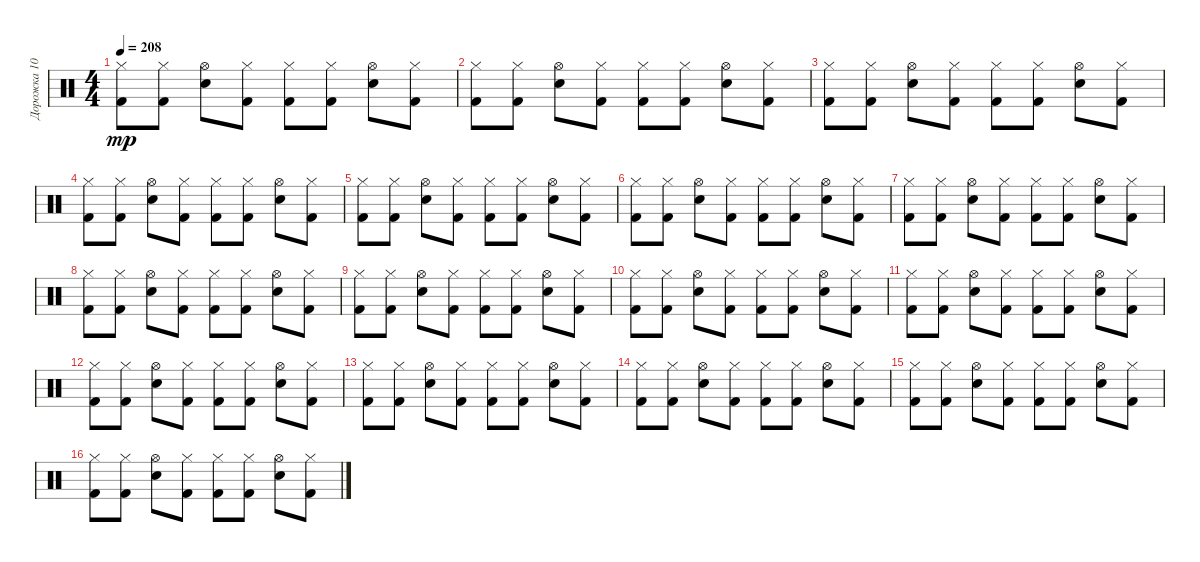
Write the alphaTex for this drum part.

\track ("Дорожка 10" "Дорожка 10") {instrument percussion}
\staff {score}
\articulation defaults
\ts (4 4)
\tempo 208
\clef neutral
\ks c
("Kick (hit) 2" "Hi-Hat (closed)").8{dy mp} ("Kick (hit) 2" "Hi-Hat (closed)").8 ("Snare (hit) 2" "Hi-Hat (open)").8 ("Kick (hit) 2" "Hi-Hat (closed)").8 ("Kick (hit) 2" "Hi-Hat (closed)").8 ("Kick (hit) 2" "Hi-Hat (closed)").8 ("Snare (hit) 2" "Hi-Hat (open)").8 ("Kick (hit) 2" "Hi-Hat (closed)").8 |
("Kick (hit) 2" "Hi-Hat (closed)").8 ("Kick (hit) 2" "Hi-Hat (closed)").8 ("Snare (hit) 2" "Hi-Hat (open)").8 ("Kick (hit) 2" "Hi-Hat (closed)").8 ("Kick (hit) 2" "Hi-Hat (closed)").8 ("Kick (hit) 2" "Hi-Hat (closed)").8 ("Snare (hit) 2" "Hi-Hat (open)").8 ("Kick (hit) 2" "Hi-Hat (closed)").8 |
("Kick (hit) 2" "Hi-Hat (closed)").8 ("Kick (hit) 2" "Hi-Hat (closed)").8 ("Snare (hit) 2" "Hi-Hat (open)").8 ("Kick (hit) 2" "Hi-Hat (closed)").8 ("Kick (hit) 2" "Hi-Hat (closed)").8 ("Kick (hit) 2" "Hi-Hat (closed)").8 ("Snare (hit) 2" "Hi-Hat (open)").8 ("Kick (hit) 2" "Hi-Hat (closed)").8 |
("Kick (hit) 2" "Hi-Hat (closed)").8 ("Kick (hit) 2" "Hi-Hat (closed)").8 ("Snare (hit) 2" "Hi-Hat (open)").8 ("Kick (hit) 2" "Hi-Hat (closed)").8 ("Kick (hit) 2" "Hi-Hat (closed)").8 ("Kick (hit) 2" "Hi-Hat (closed)").8 ("Snare (hit) 2" "Hi-Hat (open)").8 ("Kick (hit) 2" "Hi-Hat (closed)").8 |
("Kick (hit) 2" "Hi-Hat (closed)").8 ("Kick (hit) 2" "Hi-Hat (closed)").8 ("Snare (hit) 2" "Hi-Hat (open)").8 ("Kick (hit) 2" "Hi-Hat (closed)").8 ("Kick (hit) 2" "Hi-Hat (closed)").8 ("Kick (hit) 2" "Hi-Hat (closed)").8 ("Snare (hit) 2" "Hi-Hat (open)").8 ("Kick (hit) 2" "Hi-Hat (closed)").8 |
("Kick (hit) 2" "Hi-Hat (closed)").8 ("Kick (hit) 2" "Hi-Hat (closed)").8 ("Snare (hit) 2" "Hi-Hat (open)").8 ("Kick (hit) 2" "Hi-Hat (closed)").8 ("Kick (hit) 2" "Hi-Hat (closed)").8 ("Kick (hit) 2" "Hi-Hat (closed)").8 ("Snare (hit) 2" "Hi-Hat (open)").8 ("Kick (hit) 2" "Hi-Hat (closed)").8 |
("Kick (hit) 2" "Hi-Hat (closed)").8 ("Kick (hit) 2" "Hi-Hat (closed)").8 ("Snare (hit) 2" "Hi-Hat (open)").8 ("Kick (hit) 2" "Hi-Hat (closed)").8 ("Kick (hit) 2" "Hi-Hat (closed)").8 ("Kick (hit) 2" "Hi-Hat (closed)").8 ("Snare (hit) 2" "Hi-Hat (open)").8 ("Kick (hit) 2" "Hi-Hat (closed)").8 |
("Kick (hit) 2" "Hi-Hat (closed)").8 ("Kick (hit) 2" "Hi-Hat (closed)").8 ("Snare (hit) 2" "Hi-Hat (open)").8 ("Kick (hit) 2" "Hi-Hat (closed)").8 ("Kick (hit) 2" "Hi-Hat (closed)").8 ("Kick (hit) 2" "Hi-Hat (closed)").8 ("Snare (hit) 2" "Hi-Hat (open)").8 ("Kick (hit) 2" "Hi-Hat (closed)").8 |
("Kick (hit) 2" "Hi-Hat (closed)").8 ("Kick (hit) 2" "Hi-Hat (closed)").8 ("Snare (hit) 2" "Hi-Hat (open)").8 ("Kick (hit) 2" "Hi-Hat (closed)").8 ("Kick (hit) 2" "Hi-Hat (closed)").8 ("Kick (hit) 2" "Hi-Hat (closed)").8 ("Snare (hit) 2" "Hi-Hat (open)").8 ("Kick (hit) 2" "Hi-Hat (closed)").8 |
("Kick (hit) 2" "Hi-Hat (closed)").8 ("Kick (hit) 2" "Hi-Hat (closed)").8 ("Snare (hit) 2" "Hi-Hat (open)").8 ("Kick (hit) 2" "Hi-Hat (closed)").8 ("Kick (hit) 2" "Hi-Hat (closed)").8 ("Kick (hit) 2" "Hi-Hat (closed)").8 ("Snare (hit) 2" "Hi-Hat (open)").8 ("Kick (hit) 2" "Hi-Hat (closed)").8 |
("Kick (hit) 2" "Hi-Hat (closed)").8 ("Kick (hit) 2" "Hi-Hat (closed)").8 ("Snare (hit) 2" "Hi-Hat (open)").8 ("Kick (hit) 2" "Hi-Hat (closed)").8 ("Kick (hit) 2" "Hi-Hat (closed)").8 ("Kick (hit) 2" "Hi-Hat (closed)").8 ("Snare (hit) 2" "Hi-Hat (open)").8 ("Kick (hit) 2" "Hi-Hat (closed)").8 |
("Kick (hit) 2" "Hi-Hat (closed)").8 ("Kick (hit) 2" "Hi-Hat (closed)").8 ("Snare (hit) 2" "Hi-Hat (open)").8 ("Kick (hit) 2" "Hi-Hat (closed)").8 ("Kick (hit) 2" "Hi-Hat (closed)").8 ("Kick (hit) 2" "Hi-Hat (closed)").8 ("Snare (hit) 2" "Hi-Hat (open)").8 ("Kick (hit) 2" "Hi-Hat (closed)").8 |
("Kick (hit) 2" "Hi-Hat (closed)").8 ("Kick (hit) 2" "Hi-Hat (closed)").8 ("Snare (hit) 2" "Hi-Hat (open)").8 ("Kick (hit) 2" "Hi-Hat (closed)").8 ("Kick (hit) 2" "Hi-Hat (closed)").8 ("Kick (hit) 2" "Hi-Hat (closed)").8 ("Snare (hit) 2" "Hi-Hat (open)").8 ("Kick (hit) 2" "Hi-Hat (closed)").8 |
("Kick (hit) 2" "Hi-Hat (closed)").8 ("Kick (hit) 2" "Hi-Hat (closed)").8 ("Snare (hit) 2" "Hi-Hat (open)").8 ("Kick (hit) 2" "Hi-Hat (closed)").8 ("Kick (hit) 2" "Hi-Hat (closed)").8 ("Kick (hit) 2" "Hi-Hat (closed)").8 ("Snare (hit) 2" "Hi-Hat (open)").8 ("Kick (hit) 2" "Hi-Hat (closed)").8 |
("Kick (hit) 2" "Hi-Hat (closed)").8 ("Kick (hit) 2" "Hi-Hat (closed)").8 ("Snare (hit) 2" "Hi-Hat (open)").8 ("Kick (hit) 2" "Hi-Hat (closed)").8 ("Kick (hit) 2" "Hi-Hat (closed)").8 ("Kick (hit) 2" "Hi-Hat (closed)").8 ("Snare (hit) 2" "Hi-Hat (open)").8 ("Kick (hit) 2" "Hi-Hat (closed)").8 |
("Kick (hit) 2" "Hi-Hat (closed)").8 ("Kick (hit) 2" "Hi-Hat (closed)").8 ("Snare (hit) 2" "Hi-Hat (open)").8 ("Kick (hit) 2" "Hi-Hat (closed)").8 ("Kick (hit) 2" "Hi-Hat (closed)").8 ("Kick (hit) 2" "Hi-Hat (closed)").8 ("Snare (hit) 2" "Hi-Hat (open)").8 ("Kick (hit) 2" "Hi-Hat (closed)").8
